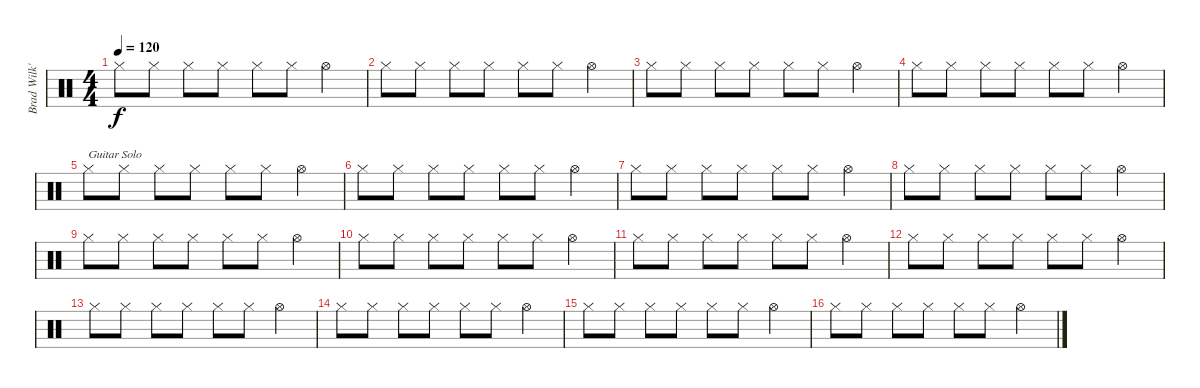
\track ("Brad Wilk's Hi Hat" "Brad Wilk'") {instrument percussion}
\staff {score}
\articulation defaults
\ts (4 4)
\tempo 120
\clef neutral
\ks c "Hi-Hat (closed)".8{dy f} "Hi-Hat (closed)".8 "Hi-Hat (closed)".8 "Hi-Hat (closed)".8 "Hi-Hat (closed)".8 "Hi-Hat (closed)".8 "Hi-Hat (open)".4
|
"Hi-Hat (closed)".8 "Hi-Hat (closed)".8 "Hi-Hat (closed)".8 "Hi-Hat (closed)".8 "Hi-Hat (closed)".8 "Hi-Hat (closed)".8 "Hi-Hat (open)".4 |
"Hi-Hat (closed)".8 "Hi-Hat (closed)".8 "Hi-Hat (closed)".8 "Hi-Hat (closed)".8 "Hi-Hat (closed)".8 "Hi-Hat (closed)".8 "Hi-Hat (open)".4 |
"Hi-Hat (closed)".8 "Hi-Hat (closed)".8 "Hi-Hat (closed)".8 "Hi-Hat (closed)".8 "Hi-Hat (closed)".8 "Hi-Hat (closed)".8 "Hi-Hat (open)".4 |
"Hi-Hat (closed)".8{txt "Guitar Solo"} "Hi-Hat (closed)".8 "Hi-Hat (closed)".8 "Hi-Hat (closed)".8 "Hi-Hat (closed)".8 "Hi-Hat (closed)".8 "Hi-Hat (open)".4 |
"Hi-Hat (closed)".8 "Hi-Hat (closed)".8 "Hi-Hat (closed)".8 "Hi-Hat (closed)".8 "Hi-Hat (closed)".8 "Hi-Hat (closed)".8 "Hi-Hat (open)".4 |
"Hi-Hat (closed)".8 "Hi-Hat (closed)".8 "Hi-Hat (closed)".8 "Hi-Hat (closed)".8 "Hi-Hat (closed)".8 "Hi-Hat (closed)".8 "Hi-Hat (open)".4 |
"Hi-Hat (closed)".8 "Hi-Hat (closed)".8 "Hi-Hat (closed)".8 "Hi-Hat (closed)".8 "Hi-Hat (closed)".8 "Hi-Hat (closed)".8 "Hi-Hat (open)".4 |
"Hi-Hat (closed)".8 "Hi-Hat (closed)".8 "Hi-Hat (closed)".8 "Hi-Hat (closed)".8 "Hi-Hat (closed)".8 "Hi-Hat (closed)".8 "Hi-Hat (open)".4 |
"Hi-Hat (closed)".8 "Hi-Hat (closed)".8 "Hi-Hat (closed)".8 "Hi-Hat (closed)".8 "Hi-Hat (closed)".8 "Hi-Hat (closed)".8 "Hi-Hat (open)".4 |
"Hi-Hat (closed)".8 "Hi-Hat (closed)".8 "Hi-Hat (closed)".8 "Hi-Hat (closed)".8 "Hi-Hat (closed)".8 "Hi-Hat (closed)".8 "Hi-Hat (open)".4 |
"Hi-Hat (closed)".8 "Hi-Hat (closed)".8 "Hi-Hat (closed)".8 "Hi-Hat (closed)".8 "Hi-Hat (closed)".8 "Hi-Hat (closed)".8 "Hi-Hat (open)".4 |
"Hi-Hat (closed)".8 "Hi-Hat (closed)".8 "Hi-Hat (closed)".8 "Hi-Hat (closed)".8 "Hi-Hat (closed)".8 "Hi-Hat (closed)".8 "Hi-Hat (open)".4 |
"Hi-Hat (closed)".8 "Hi-Hat (closed)".8 "Hi-Hat (closed)".8 "Hi-Hat (closed)".8 "Hi-Hat (closed)".8 "Hi-Hat (closed)".8 "Hi-Hat (open)".4 |
"Hi-Hat (closed)".8 "Hi-Hat (closed)".8 "Hi-Hat (closed)".8 "Hi-Hat (closed)".8 "Hi-Hat (closed)".8 "Hi-Hat (closed)".8 "Hi-Hat (open)".4 |
"Hi-Hat (closed)".8 "Hi-Hat (closed)".8 "Hi-Hat (closed)".8 "Hi-Hat (closed)".8 "Hi-Hat (closed)".8 "Hi-Hat (closed)".8 "Hi-Hat (open)".4
